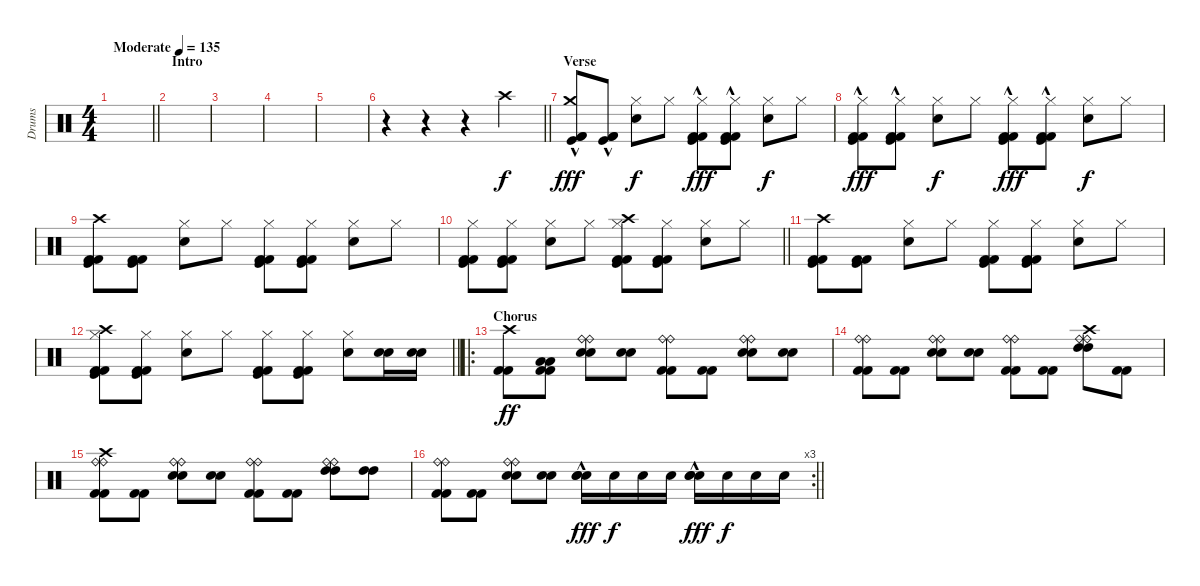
\track ("Drums" "Drums") {instrument percussion}
\staff {score}
\articulation defaults
\ts (4 4)
\tempo (135 "Moderate")
\clef neutral
\barLineRight lightlight
\ks c
|
\section ("" "Intro")
|
|
|
|
\barLineRight lightlight
r.4 r.4 r.4 "Crash high (hit)".4 |
\section ("" "Verse")
("Kick (hit) 2" "Crash medium (hit)" "Kick (hit) 2"{hac} "Kick (hit)"{hac}).8{dy fff} ("Kick (hit) 2" "Kick (hit) 2"{hac} "Kick (hit)"{hac}).8 ("Hi-Hat (closed)" "Electric Snare (hit)").8{dy f} "Hi-Hat (closed)".8 ("Kick (hit) 2" "Hi-Hat (closed)" "Kick (hit)"{hac} "Kick (hit) 2"{hac}).8{dy fff} ("Kick (hit) 2" "Hi-Hat (closed)" "Kick (hit)"{hac} "Kick (hit) 2"{hac}).8 ("Hi-Hat (closed)" "Electric Snare (hit)").8{dy f} "Hi-Hat (closed)".8 |
("Kick (hit) 2" "Hi-Hat (closed)" "Kick (hit)"{hac} "Kick (hit) 2"{hac}).8{dy fff} ("Kick (hit) 2" "Hi-Hat (closed)" "Kick (hit)"{hac} "Kick (hit) 2"{hac}).8 ("Hi-Hat (closed)" "Electric Snare (hit)").8{dy f} "Hi-Hat (closed)".8 ("Kick (hit) 2" "Hi-Hat (closed)" "Kick (hit)"{hac} "Kick (hit) 2"{hac}).8{dy fff} ("Kick (hit) 2" "Hi-Hat (closed)" "Kick (hit)"{hac} "Kick (hit) 2"{hac}).8 ("Hi-Hat (closed)" "Electric Snare (hit)").8{dy f} "Hi-Hat (closed)".8 |
("Kick (hit) 2" "Crash high (hit)" "Kick (hit) 2" "Kick (hit)").8 ("Kick (hit) 2" "Kick (hit) 2" "Kick (hit)").8 ("Hi-Hat (closed)" "Electric Snare (hit)").8 "Hi-Hat (closed)".8 ("Kick (hit) 2" "Hi-Hat (closed)" "Kick (hit) 2" "Kick (hit)").8 ("Kick (hit) 2" "Hi-Hat (closed)" "Kick (hit) 2" "Kick (hit)").8 ("Hi-Hat (closed)" "Electric Snare (hit)").8 "Hi-Hat (closed)".8 |
\barLineRight lightlight
("Kick (hit) 2" "Hi-Hat (closed)" "Kick (hit) 2" "Kick (hit)").8 ("Kick (hit) 2" "Hi-Hat (closed)" "Kick (hit) 2" "Kick (hit)").8 ("Hi-Hat (closed)" "Electric Snare (hit)").8 "Hi-Hat (closed)".8 ("Crash high (hit)" "Kick (hit) 2" "Hi-Hat (closed)" "Kick (hit) 2" "Kick (hit)").8 ("Kick (hit) 2" "Hi-Hat (closed)" "Kick (hit) 2" "Kick (hit)").8 ("Hi-Hat (closed)" "Electric Snare (hit)").8 "Hi-Hat (closed)".8 |
("Kick (hit) 2" "Crash high (hit)" "Kick (hit) 2" "Kick (hit)").8 ("Kick (hit) 2" "Kick (hit) 2" "Kick (hit)").8 ("Hi-Hat (closed)" "Electric Snare (hit)").8 "Hi-Hat (closed)".8 ("Kick (hit) 2" "Hi-Hat (closed)" "Kick (hit) 2" "Kick (hit)").8 ("Kick (hit) 2" "Hi-Hat (closed)" "Kick (hit) 2" "Kick (hit)").8 ("Hi-Hat (closed)" "Electric Snare (hit)").8 "Hi-Hat (closed)".8 |
\barLineRight lightlight
("Crash high (hit)" "Kick (hit) 2" "Hi-Hat (closed)" "Kick (hit) 2" "Kick (hit)").8 ("Kick (hit) 2" "Hi-Hat (closed)" "Kick (hit) 2" "Kick (hit)").8 ("Hi-Hat (closed)" "Electric Snare (hit)").8 "Hi-Hat (closed)".8 ("Kick (hit) 2" "Hi-Hat (closed)" "Kick (hit) 2" "Kick (hit)").8 ("Kick (hit) 2" "Hi-Hat (closed)" "Kick (hit) 2" "Kick (hit)").8 ("Hi-Hat (closed)" "Electric Snare (hit)").8 ("Electric Snare (hit)" "Snare (hit) 2").16 ("Electric Snare (hit)" "Snare (hit) 2").16 |
\ro
\section ("" "Chorus")
("Kick (hit) 2" "Kick (hit) 2" "Crash high (hit)").8{dy ff} ("Kick (hit) 2" "Kick (hit) 2" "Low Tom (hit)" "Low Tom (hit)").8 ("Electric Snare (hit)" "Electric Snare (hit)" "Ride (bell)" "Ride (bell)").8 ("Electric Snare (hit)" "Electric Snare (hit)").8 ("Kick (hit) 2" "Kick (hit) 2" "Ride (bell)" "Ride (bell)").8 ("Kick (hit) 2" "Kick (hit) 2").8 ("Electric Snare (hit)" "Electric Snare (hit)" "Ride (bell)" "Ride (bell)").8 ("Electric Snare (hit)" "Electric Snare (hit)").8 |
("Kick (hit) 2" "Kick (hit) 2" "Ride (bell)" "Ride (bell)").8 ("Kick (hit) 2" "Kick (hit) 2").8 ("Electric Snare (hit)" "Electric Snare (hit)" "Ride (bell)" "Ride (bell)").8 ("Electric Snare (hit)" "Electric Snare (hit)").8 ("Kick (hit) 2" "Kick (hit) 2" "Ride (bell)" "Ride (bell)").8 ("Kick (hit) 2" "Kick (hit) 2").8 ("High Tom (hit)" "High Tom (hit)" "Ride (bell)" "Crash high (hit)" "Ride (bell)").8 ("Kick (hit) 2" "Kick (hit) 2").8 |
("Kick (hit) 2" "Kick (hit) 2" "Ride (bell)" "Ride (bell)" "Crash high (hit)").8 ("Kick (hit) 2" "Kick (hit) 2").8 ("Electric Snare (hit)" "Electric Snare (hit)" "Ride (bell)" "Ride (bell)").8 ("Electric Snare (hit)" "Electric Snare (hit)").8 ("Kick (hit) 2" "Kick (hit) 2" "Ride (bell)" "Ride (bell)").8 ("Kick (hit) 2" "Kick (hit) 2").8 ("High Tom (hit)" "High Tom (hit)" "Ride (bell)" "Ride (bell)").8 ("High Tom (hit)" "High Tom (hit)").8 |
\rc 3
\barLineRight lightlight
("Kick (hit) 2" "Kick (hit) 2" "Ride (bell)" "Ride (bell)").8 ("Kick (hit) 2" "Kick (hit) 2").8 ("Electric Snare (hit)" "Electric Snare (hit)" "Ride (bell)" "Ride (bell)").8 ("Electric Snare (hit)" "Electric Snare (hit)").8 ("Snare (hit) 2"{hac} "Electric Snare (hit)"{hac} "Snare (hit) 2"{hac}).16{dy fff} "Electric Snare (hit)".16{dy f} "Electric Snare (hit)".16 "Electric Snare (hit)".16 ("Snare (hit) 2"{hac} "Electric Snare (hit)"{hac} "Snare (hit) 2"{hac}).16{dy fff} "Electric Snare (hit)".16{dy f} "Electric Snare (hit)".16 "Electric Snare (hit)".16
